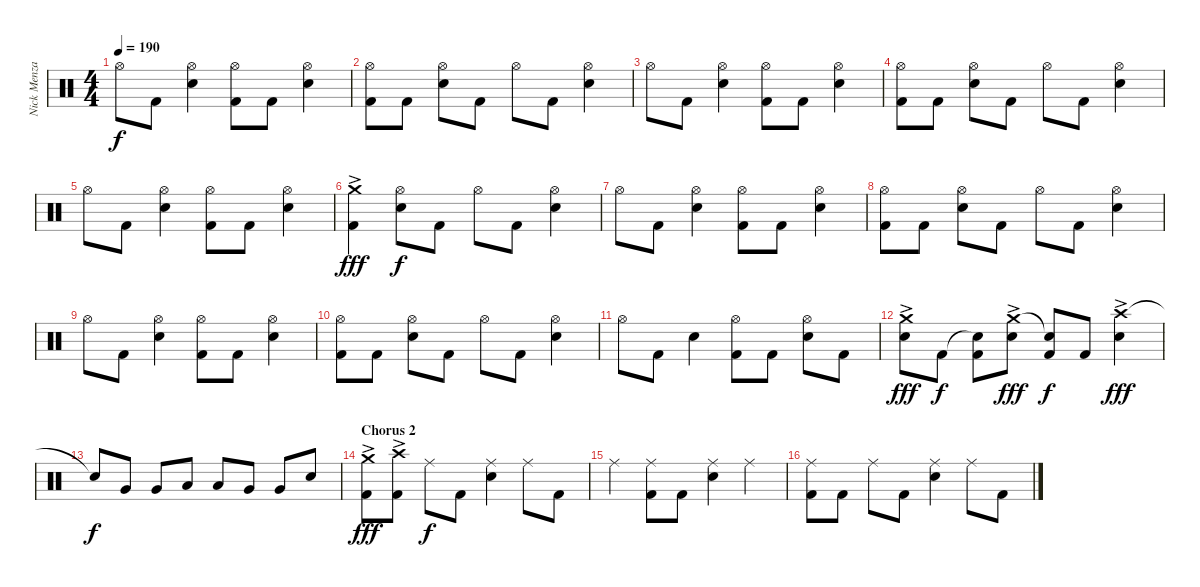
\track ("Nick Menza" "Nick Menza") {instrument percussion}
\staff {score}
\articulation defaults
\ts (4 4)
\tempo 190
\clef neutral
\ks c "Hi-Hat (open)".8{dy f} "Kick (hit) 2".8
("Hi-Hat (open)" "Snare (hit) 2").4 ("Hi-Hat (open)" "Kick (hit) 2").8 "Kick (hit) 2".8 ("Hi-Hat (open)" "Snare (hit) 2").4 |
("Hi-Hat (open)" "Kick (hit) 2").8 "Kick (hit) 2".8 ("Hi-Hat (open)" "Snare (hit) 2").8 "Kick (hit) 2".8 "Hi-Hat (open)".8 "Kick (hit) 2".8 ("Hi-Hat (open)" "Snare (hit) 2").4 |
"Hi-Hat (open)".8 "Kick (hit) 2".8 ("Hi-Hat (open)" "Snare (hit) 2").4 ("Hi-Hat (open)" "Kick (hit) 2").8 "Kick (hit) 2".8 ("Hi-Hat (open)" "Snare (hit) 2").4 |
("Hi-Hat (open)" "Kick (hit) 2").8 "Kick (hit) 2".8 ("Hi-Hat (open)" "Snare (hit) 2").8 "Kick (hit) 2".8 "Hi-Hat (open)".8 "Kick (hit) 2".8 ("Hi-Hat (open)" "Snare (hit) 2").4 |
"Hi-Hat (open)".8 "Kick (hit) 2".8 ("Hi-Hat (open)" "Snare (hit) 2").4 ("Hi-Hat (open)" "Kick (hit) 2").8 "Kick (hit) 2".8 ("Hi-Hat (open)" "Snare (hit) 2").4 |
("Crash medium (hit)"{ac} "Kick (hit) 2").4{dy fff} ("Hi-Hat (open)" "Snare (hit) 2").8{dy f} "Kick (hit) 2".8 "Hi-Hat (open)".8 "Kick (hit) 2".8 ("Hi-Hat (open)" "Snare (hit) 2").4 |
"Hi-Hat (open)".8 "Kick (hit) 2".8 ("Hi-Hat (open)" "Snare (hit) 2").4 ("Hi-Hat (open)" "Kick (hit) 2").8 "Kick (hit) 2".8 ("Hi-Hat (open)" "Snare (hit) 2").4 |
("Hi-Hat (open)" "Kick (hit) 2").8 "Kick (hit) 2".8 ("Hi-Hat (open)" "Snare (hit) 2").8 "Kick (hit) 2".8 "Hi-Hat (open)".8 "Kick (hit) 2".8 ("Hi-Hat (open)" "Snare (hit) 2").4 |
"Hi-Hat (open)".8 "Kick (hit) 2".8 ("Hi-Hat (open)" "Snare (hit) 2").4 ("Hi-Hat (open)" "Kick (hit) 2").8 "Kick (hit) 2".8 ("Hi-Hat (open)" "Snare (hit) 2").4 |
("Hi-Hat (open)" "Kick (hit) 2").8 "Kick (hit) 2".8 ("Hi-Hat (open)" "Snare (hit) 2").8 "Kick (hit) 2".8 "Hi-Hat (open)".8 "Kick (hit) 2".8 ("Hi-Hat (open)" "Snare (hit) 2").4 |
"Hi-Hat (open)".8 "Kick (hit) 2".8 "Snare (hit) 2".4 ("Hi-Hat (open)" "Kick (hit) 2").8 "Kick (hit) 2".8 ("Hi-Hat (open)" "Snare (hit) 2").8 "Kick (hit) 2".8 |
("Crash medium (hit)"{ac} "Snare (hit) 2").8{dy fff} "Kick (hit) 2".8{dy f} ("Snare (hit)"{t} "Kick (hit) 2").8 ("Crash medium (hit)"{ac} "Snare (hit) 2").8{dy fff} ("Snare (hit)"{t} "Kick (hit) 2").8{dy f} "Kick (hit) 2".8 ("Crash high (hit)"{ac} "Snare (hit) 2").4{dy fff} |
"Snare (hit)"{t}.8{dy f} "Very Low Tom (hit)".8 "Very Low Tom (hit)".8 "Low Tom (hit)".8 "Low Tom (hit)".8 "Very Low Tom (hit)".8 "Very Low Tom (hit)".8 "Snare (hit) 2".8 |
\section ("" "Chorus 2")
("Crash medium (hit)"{ac} "Kick (hit) 2").8{dy fff} ("Crash high (hit)"{ac} "Kick (hit) 2").8 "Ride (middle)".8{dy f} "Kick (hit) 2".8 ("Ride (middle)" "Snare (hit) 2").4 "Ride (middle)".8 "Kick (hit) 2".8 |
"Ride (middle)".4 ("Ride (middle)" "Kick (hit) 2").8 "Kick (hit) 2".8 ("Ride (middle)" "Snare (hit) 2").4 "Ride (middle)".4 |
("Ride (middle)" "Kick (hit) 2").8 "Kick (hit) 2".8 "Ride (middle)".8 "Kick (hit) 2".8 ("Ride (middle)" "Snare (hit) 2").4 "Ride (middle)".8 "Kick (hit) 2".8
